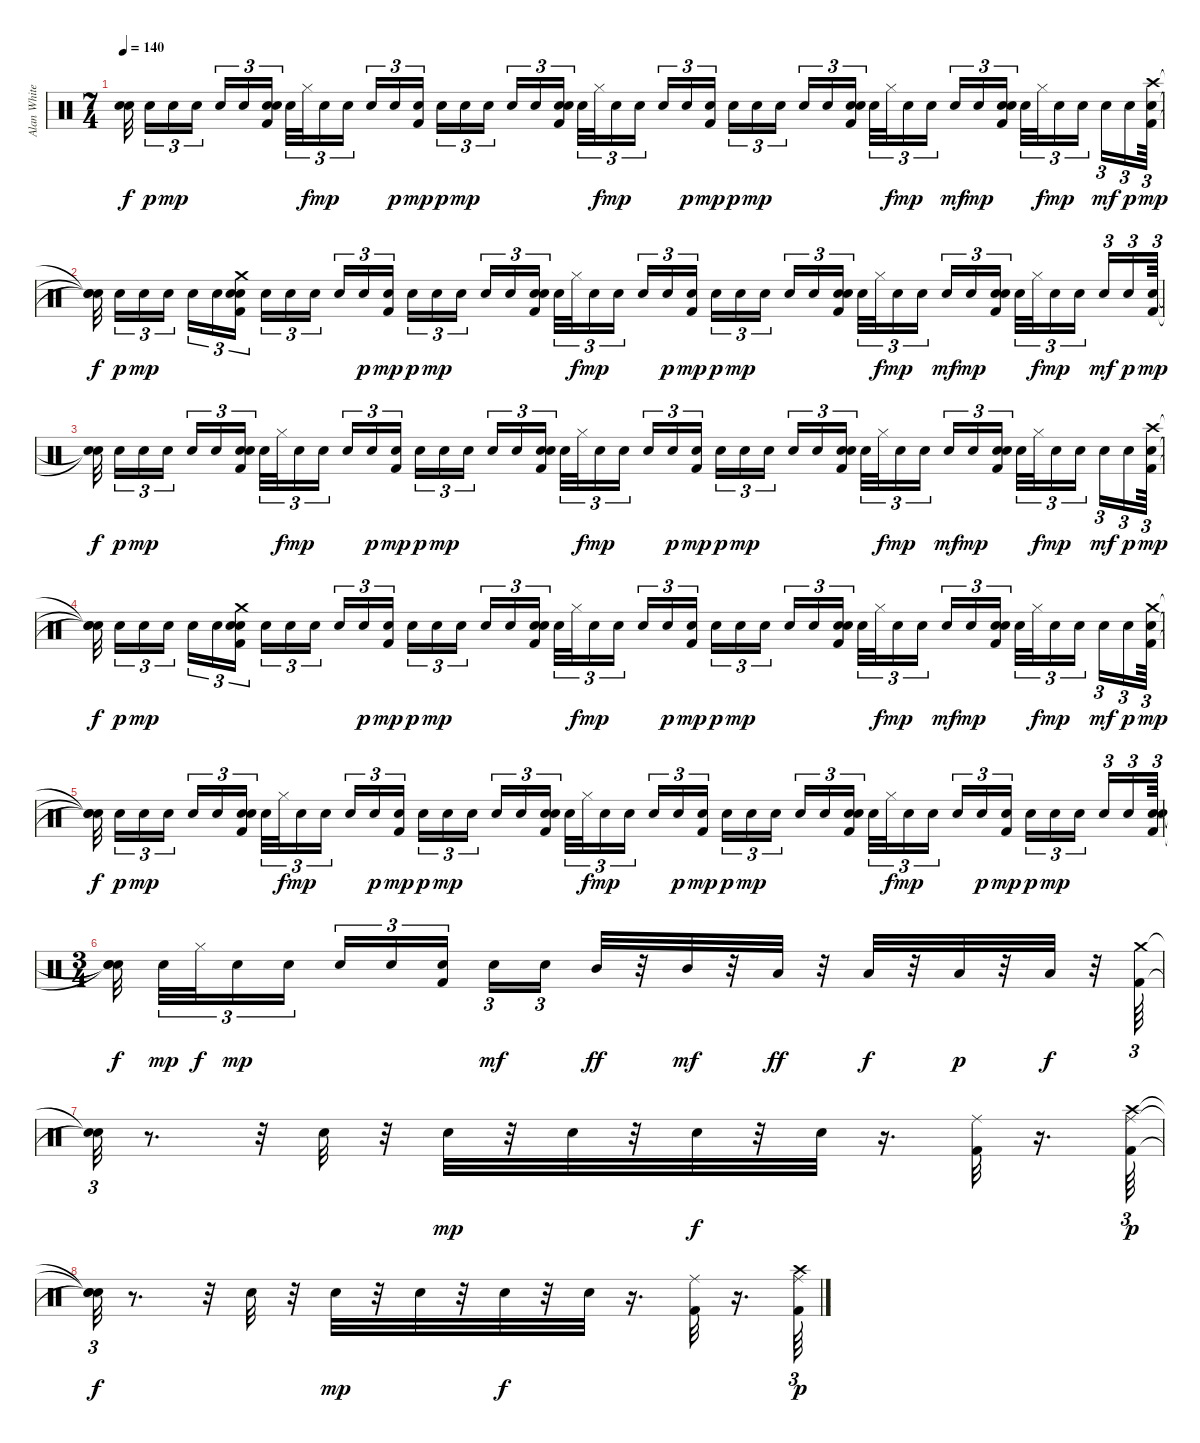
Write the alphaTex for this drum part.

\track ("Alan White" "Alan White") {instrument percussion}
\staff {score}
\articulation defaults
\ts (7 4)
\tempo 140
\clef neutral
\ks c
("Snare (hit)"{t} "Snare (hit)"{t}).32{dy f beam splitsecondary} "Electric Snare (hit)".16{tu (3 2) dy p} "Electric Snare (hit)".16{tu (3 2) dy mp} "Electric Snare (hit)".16{tu (3 2) beam splitsecondary} "Electric Snare (hit)".16{tu (3 2)} "Electric Snare (hit)".16{tu (3 2)} ("Electric Snare (hit)" "Kick (hit) 2" "Snare (hit) 2").16{tu (3 2)} "Electric Snare (hit)".32{tu (3 2)} "Hi-Hat (closed)".32{tu (3 2) dy f} "Electric Snare (hit)".16{tu (3 2) dy mp} "Electric Snare (hit)".16{tu (3 2) beam splitsecondary} "Electric Snare (hit)".16{tu (3 2)} "Electric Snare (hit)".16{tu (3 2) dy p} ("Kick (hit) 2" "Electric Snare (hit)").16{tu (3 2) dy mp} "Electric Snare (hit)".16{tu (3 2) dy p} "Electric Snare (hit)".16{tu (3 2) dy mp} "Electric Snare (hit)".16{tu (3 2) beam splitsecondary} "Electric Snare (hit)".16{tu (3 2)} "Electric Snare (hit)".16{tu (3 2)} ("Electric Snare (hit)" "Kick (hit) 2" "Snare (hit) 2").16{tu (3 2)} "Electric Snare (hit)".32{tu (3 2)} "Hi-Hat (closed)".32{tu (3 2) dy f} "Electric Snare (hit)".16{tu (3 2) dy mp} "Electric Snare (hit)".16{tu (3 2) beam splitsecondary} "Electric Snare (hit)".16{tu (3 2)} "Electric Snare (hit)".16{tu (3 2) dy p} ("Electric Snare (hit)" "Kick (hit) 2").16{tu (3 2) dy mp} "Electric Snare (hit)".16{tu (3 2) dy p} "Electric Snare (hit)".16{tu (3 2) dy mp} "Electric Snare (hit)".16{tu (3 2) beam splitsecondary} "Electric Snare (hit)".16{tu (3 2)} "Electric Snare (hit)".16{tu (3 2)} ("Kick (hit) 2" "Electric Snare (hit)" "Snare (hit) 2").16{tu (3 2)} "Electric Snare (hit)".32{tu (3 2)} "Hi-Hat (closed)".32{tu (3 2) dy f} "Electric Snare (hit)".16{tu (3 2) dy mp} "Electric Snare (hit)".16{tu (3 2) beam splitsecondary} "Electric Snare (hit)".16{tu (3 2) dy mf} "Electric Snare (hit)".16{tu (3 2) dy mp} ("Kick (hit) 2" "Electric Snare (hit)" "Snare (hit) 2").16{tu (3 2)} "Electric Snare (hit)".32{tu (3 2)} "Hi-Hat (closed)".32{tu (3 2) dy f} "Electric Snare (hit)".16{tu (3 2) dy mp} "Electric Snare (hit)".16{tu (3 2) beam splitsecondary} "Electric Snare (hit)".16{tu (3 2) dy mf} "Electric Snare (hit)".16{tu (3 2) dy p} ("Electric Snare (hit)" "Kick (hit) 2" "Crash high (hit)").64{tu (3 2) dy mp} |
("Snare (hit)"{t} "Snare (hit)"{t} "Snare (hit)"{t}).32{dy f beam splitsecondary} "Electric Snare (hit)".16{tu (3 2) dy p} "Electric Snare (hit)".16{tu (3 2) dy mp} "Electric Snare (hit)".16{tu (3 2) beam splitsecondary} "Electric Snare (hit)".16{tu (3 2)} "Electric Snare (hit)".16{tu (3 2)} ("Crash medium (hit)" "Kick (hit) 2" "Electric Snare (hit)" "Snare (hit) 2").16{tu (3 2)} "Electric Snare (hit)".16{tu (3 2)} "Electric Snare (hit)".16{tu (3 2)} "Electric Snare (hit)".16{tu (3 2) beam splitsecondary} "Electric Snare (hit)".16{tu (3 2)} "Electric Snare (hit)".16{tu (3 2) dy p} ("Kick (hit) 2" "Electric Snare (hit)").16{tu (3 2) dy mp} "Electric Snare (hit)".16{tu (3 2) dy p} "Electric Snare (hit)".16{tu (3 2) dy mp} "Electric Snare (hit)".16{tu (3 2) beam splitsecondary} "Electric Snare (hit)".16{tu (3 2)} "Electric Snare (hit)".16{tu (3 2)} ("Electric Snare (hit)" "Kick (hit) 2" "Snare (hit) 2").16{tu (3 2)} "Electric Snare (hit)".32{tu (3 2)} "Hi-Hat (closed)".32{tu (3 2) dy f} "Electric Snare (hit)".16{tu (3 2) dy mp} "Electric Snare (hit)".16{tu (3 2) beam splitsecondary} "Electric Snare (hit)".16{tu (3 2)} "Electric Snare (hit)".16{tu (3 2) dy p} ("Electric Snare (hit)" "Kick (hit) 2").16{tu (3 2) dy mp} "Electric Snare (hit)".16{tu (3 2) dy p} "Electric Snare (hit)".16{tu (3 2) dy mp} "Electric Snare (hit)".16{tu (3 2) beam splitsecondary} "Electric Snare (hit)".16{tu (3 2)} "Electric Snare (hit)".16{tu (3 2)} ("Electric Snare (hit)" "Kick (hit) 2" "Snare (hit) 2").16{tu (3 2)} "Electric Snare (hit)".32{tu (3 2)} "Hi-Hat (closed)".32{tu (3 2) dy f} "Electric Snare (hit)".16{tu (3 2) dy mp} "Electric Snare (hit)".16{tu (3 2) beam splitsecondary} "Electric Snare (hit)".16{tu (3 2) dy mf} "Electric Snare (hit)".16{tu (3 2) dy mp} ("Kick (hit) 2" "Electric Snare (hit)" "Snare (hit) 2").16{tu (3 2)} "Electric Snare (hit)".32{tu (3 2)} "Hi-Hat (closed)".32{tu (3 2) dy f} "Electric Snare (hit)".16{tu (3 2) dy mp} "Electric Snare (hit)".16{tu (3 2) beam splitsecondary} "Electric Snare (hit)".16{tu (3 2) dy mf} "Electric Snare (hit)".16{tu (3 2) dy p} ("Electric Snare (hit)" "Kick (hit) 2").64{tu (3 2) dy mp} |
("Snare (hit)"{t} "Snare (hit)"{t}).32{dy f beam splitsecondary} "Electric Snare (hit)".16{tu (3 2) dy p} "Electric Snare (hit)".16{tu (3 2) dy mp} "Electric Snare (hit)".16{tu (3 2) beam splitsecondary} "Electric Snare (hit)".16{tu (3 2)} "Electric Snare (hit)".16{tu (3 2)} ("Kick (hit) 2" "Electric Snare (hit)" "Snare (hit) 2").16{tu (3 2)} "Electric Snare (hit)".32{tu (3 2)} "Hi-Hat (closed)".32{tu (3 2) dy f} "Electric Snare (hit)".16{tu (3 2) dy mp} "Electric Snare (hit)".16{tu (3 2) beam splitsecondary} "Electric Snare (hit)".16{tu (3 2)} "Electric Snare (hit)".16{tu (3 2) dy p} ("Kick (hit) 2" "Electric Snare (hit)").16{tu (3 2) dy mp} "Electric Snare (hit)".16{tu (3 2) dy p} "Electric Snare (hit)".16{tu (3 2) dy mp} "Electric Snare (hit)".16{tu (3 2) beam splitsecondary} "Electric Snare (hit)".16{tu (3 2)} "Electric Snare (hit)".16{tu (3 2)} ("Electric Snare (hit)" "Kick (hit) 2" "Snare (hit) 2").16{tu (3 2)} "Electric Snare (hit)".32{tu (3 2)} "Hi-Hat (closed)".32{tu (3 2) dy f} "Electric Snare (hit)".16{tu (3 2) dy mp} "Electric Snare (hit)".16{tu (3 2) beam splitsecondary} "Electric Snare (hit)".16{tu (3 2)} "Electric Snare (hit)".16{tu (3 2) dy p} ("Electric Snare (hit)" "Kick (hit) 2").16{tu (3 2) dy mp} "Electric Snare (hit)".16{tu (3 2) dy p} "Electric Snare (hit)".16{tu (3 2) dy mp} "Electric Snare (hit)".16{tu (3 2) beam splitsecondary} "Electric Snare (hit)".16{tu (3 2)} "Electric Snare (hit)".16{tu (3 2)} ("Electric Snare (hit)" "Kick (hit) 2" "Snare (hit) 2").16{tu (3 2)} "Electric Snare (hit)".32{tu (3 2)} "Hi-Hat (closed)".32{tu (3 2) dy f} "Electric Snare (hit)".16{tu (3 2) dy mp} "Electric Snare (hit)".16{tu (3 2) beam splitsecondary} "Electric Snare (hit)".16{tu (3 2) dy mf} "Electric Snare (hit)".16{tu (3 2) dy mp} ("Electric Snare (hit)" "Kick (hit) 2" "Snare (hit) 2").16{tu (3 2)} "Electric Snare (hit)".32{tu (3 2)} "Hi-Hat (closed)".32{tu (3 2) dy f} "Electric Snare (hit)".16{tu (3 2) dy mp} "Electric Snare (hit)".16{tu (3 2) beam splitsecondary} "Electric Snare (hit)".16{tu (3 2) dy mf} "Electric Snare (hit)".16{tu (3 2) dy p} ("Crash high (hit)" "Electric Snare (hit)" "Kick (hit) 2").64{tu (3 2) dy mp} |
("Snare (hit)"{t} "Snare (hit)"{t} "Snare (hit)"{t}).32{dy f beam splitsecondary} "Electric Snare (hit)".16{tu (3 2) dy p} "Electric Snare (hit)".16{tu (3 2) dy mp} "Electric Snare (hit)".16{tu (3 2) beam splitsecondary} "Electric Snare (hit)".16{tu (3 2)} "Electric Snare (hit)".16{tu (3 2)} ("Kick (hit) 2" "Crash medium (hit)" "Electric Snare (hit)" "Snare (hit) 2").16{tu (3 2)} "Electric Snare (hit)".16{tu (3 2)} "Electric Snare (hit)".16{tu (3 2)} "Electric Snare (hit)".16{tu (3 2) beam splitsecondary} "Electric Snare (hit)".16{tu (3 2)} "Electric Snare (hit)".16{tu (3 2) dy p} ("Kick (hit) 2" "Electric Snare (hit)").16{tu (3 2) dy mp} "Electric Snare (hit)".16{tu (3 2) dy p} "Electric Snare (hit)".16{tu (3 2) dy mp} "Electric Snare (hit)".16{tu (3 2) beam splitsecondary} "Electric Snare (hit)".16{tu (3 2)} "Electric Snare (hit)".16{tu (3 2)} ("Electric Snare (hit)" "Kick (hit) 2" "Snare (hit) 2").16{tu (3 2)} "Electric Snare (hit)".32{tu (3 2)} "Hi-Hat (closed)".32{tu (3 2) dy f} "Electric Snare (hit)".16{tu (3 2) dy mp} "Electric Snare (hit)".16{tu (3 2) beam splitsecondary} "Electric Snare (hit)".16{tu (3 2)} "Electric Snare (hit)".16{tu (3 2) dy p} ("Electric Snare (hit)" "Kick (hit) 2").16{tu (3 2) dy mp} "Electric Snare (hit)".16{tu (3 2) dy p} "Electric Snare (hit)".16{tu (3 2) dy mp} "Electric Snare (hit)".16{tu (3 2) beam splitsecondary} "Electric Snare (hit)".16{tu (3 2)} "Electric Snare (hit)".16{tu (3 2)} ("Electric Snare (hit)" "Kick (hit) 2" "Snare (hit) 2").16{tu (3 2)} "Electric Snare (hit)".32{tu (3 2)} "Hi-Hat (closed)".32{tu (3 2) dy f} "Electric Snare (hit)".16{tu (3 2) dy mp} "Electric Snare (hit)".16{tu (3 2) beam splitsecondary} "Electric Snare (hit)".16{tu (3 2) dy mf} "Electric Snare (hit)".16{tu (3 2) dy mp} ("Kick (hit) 2" "Electric Snare (hit)" "Snare (hit) 2").16{tu (3 2)} "Electric Snare (hit)".32{tu (3 2)} "Hi-Hat (closed)".32{tu (3 2) dy f} "Electric Snare (hit)".16{tu (3 2) dy mp} "Electric Snare (hit)".16{tu (3 2) beam splitsecondary} "Electric Snare (hit)".16{tu (3 2) dy mf} "Electric Snare (hit)".16{tu (3 2) dy p} ("Crash medium (hit)" "Electric Snare (hit)" "Kick (hit) 2").64{tu (3 2) dy mp} |
("Snare (hit)"{t} "Snare (hit)"{t} "Snare (hit)"{t}).32{dy f beam splitsecondary} "Electric Snare (hit)".16{tu (3 2) dy p} "Electric Snare (hit)".16{tu (3 2) dy mp} "Electric Snare (hit)".16{tu (3 2) beam splitsecondary} "Electric Snare (hit)".16{tu (3 2)} "Electric Snare (hit)".16{tu (3 2)} ("Electric Snare (hit)" "Kick (hit) 2" "Snare (hit) 2").16{tu (3 2)} "Electric Snare (hit)".32{tu (3 2)} "Hi-Hat (closed)".32{tu (3 2) dy f} "Electric Snare (hit)".16{tu (3 2) dy mp} "Electric Snare (hit)".16{tu (3 2) beam splitsecondary} "Electric Snare (hit)".16{tu (3 2)} "Electric Snare (hit)".16{tu (3 2) dy p} ("Kick (hit) 2" "Electric Snare (hit)").16{tu (3 2) dy mp} "Electric Snare (hit)".16{tu (3 2) dy p} "Electric Snare (hit)".16{tu (3 2) dy mp} "Electric Snare (hit)".16{tu (3 2) beam splitsecondary} "Electric Snare (hit)".16{tu (3 2)} "Electric Snare (hit)".16{tu (3 2)} ("Electric Snare (hit)" "Kick (hit) 2" "Snare (hit) 2").16{tu (3 2)} "Electric Snare (hit)".32{tu (3 2)} "Hi-Hat (closed)".32{tu (3 2) dy f} "Electric Snare (hit)".16{tu (3 2) dy mp} "Electric Snare (hit)".16{tu (3 2) beam splitsecondary} "Electric Snare (hit)".16{tu (3 2)} "Electric Snare (hit)".16{tu (3 2) dy p} ("Electric Snare (hit)" "Kick (hit) 2").16{tu (3 2) dy mp} "Electric Snare (hit)".16{tu (3 2) dy p} "Electric Snare (hit)".16{tu (3 2) dy mp} "Electric Snare (hit)".16{tu (3 2) beam splitsecondary} "Electric Snare (hit)".16{tu (3 2)} "Electric Snare (hit)".16{tu (3 2)} ("Electric Snare (hit)" "Kick (hit) 2" "Snare (hit) 2").16{tu (3 2)} "Electric Snare (hit)".32{tu (3 2)} "Hi-Hat (closed)".32{tu (3 2) dy f} "Electric Snare (hit)".16{tu (3 2) dy mp} "Electric Snare (hit)".16{tu (3 2) beam splitsecondary} "Electric Snare (hit)".16{tu (3 2)} "Electric Snare (hit)".16{tu (3 2) dy p} ("Electric Snare (hit)" "Kick (hit) 2").16{tu (3 2) dy mp} "Electric Snare (hit)".16{tu (3 2) dy p} "Electric Snare (hit)".16{tu (3 2) dy mp} "Electric Snare (hit)".16{tu (3 2) beam splitsecondary} "Electric Snare (hit)".16{tu (3 2)} "Electric Snare (hit)".16{tu (3 2)} ("Electric Snare (hit)" "Kick (hit) 2" "Snare (hit) 2").64{tu (3 2)} |
\ts (3 4)
("Snare (hit)"{t} "Snare (hit)"{t} "Snare (hit)"{t}).32{dy f beam splitsecondary} "Electric Snare (hit)".32{tu (3 2) dy mp} "Hi-Hat (closed)".32{tu (3 2) dy f} "Electric Snare (hit)".16{tu (3 2) dy mp} "Electric Snare (hit)".16{tu (3 2) beam splitsecondary} "Electric Snare (hit)".16{tu (3 2)} "Electric Snare (hit)".16{tu (3 2)} ("Electric Snare (hit)" "Kick (hit) 2").16{tu (3 2)} "Electric Snare (hit)".16{tu (3 2) dy mf} "Electric Snare (hit)".16{tu (3 2) beam splitsecondary} "Mid Tom (hit)".32{dy ff} r.32 "Mid Tom (hit)".32{dy mf} r.32 "Low Tom (hit)".32{dy ff} r.32 "Low Tom (hit)".32{dy f} r.32 "Low Tom (hit)".32{dy p} r.32 "Low Tom (hit)".32{dy f} r.32 ("Kick (hit) 2" "Crash medium (hit)").64{tu (3 2)} |
("Snare (hit)"{t} "Snare (hit)"{t}).32{tu (3 2)} r.8{d} r.32 "Electric Snare (hit)".32 r.32 "Electric Snare (hit)".32{dy mp} r.32 "Electric Snare (hit)".32 r.32 "Electric Snare (hit)".32{dy f} r.32 "Electric Snare (hit)".32 r.16{d} ("Kick (hit) 2" "Ride (middle)").32 r.16{d} ("Crash high (hit)" "Ride (middle)" "Kick (hit) 2").64{tu (3 2) dy p} |
("Snare (hit)"{t} "Snare (hit)"{t} "Snare (hit)"{t}).32{tu (3 2) dy f} r.8{d} r.32 "Electric Snare (hit)".32 r.32 "Electric Snare (hit)".32{dy mp} r.32 "Electric Snare (hit)".32 r.32 "Electric Snare (hit)".32{dy f} r.32 "Electric Snare (hit)".32 r.16{d} ("Kick (hit) 2" "Ride (middle)").32 r.16{d} ("Crash high (hit)" "Kick (hit) 2" "Ride (middle)").64{tu (3 2) dy p}
